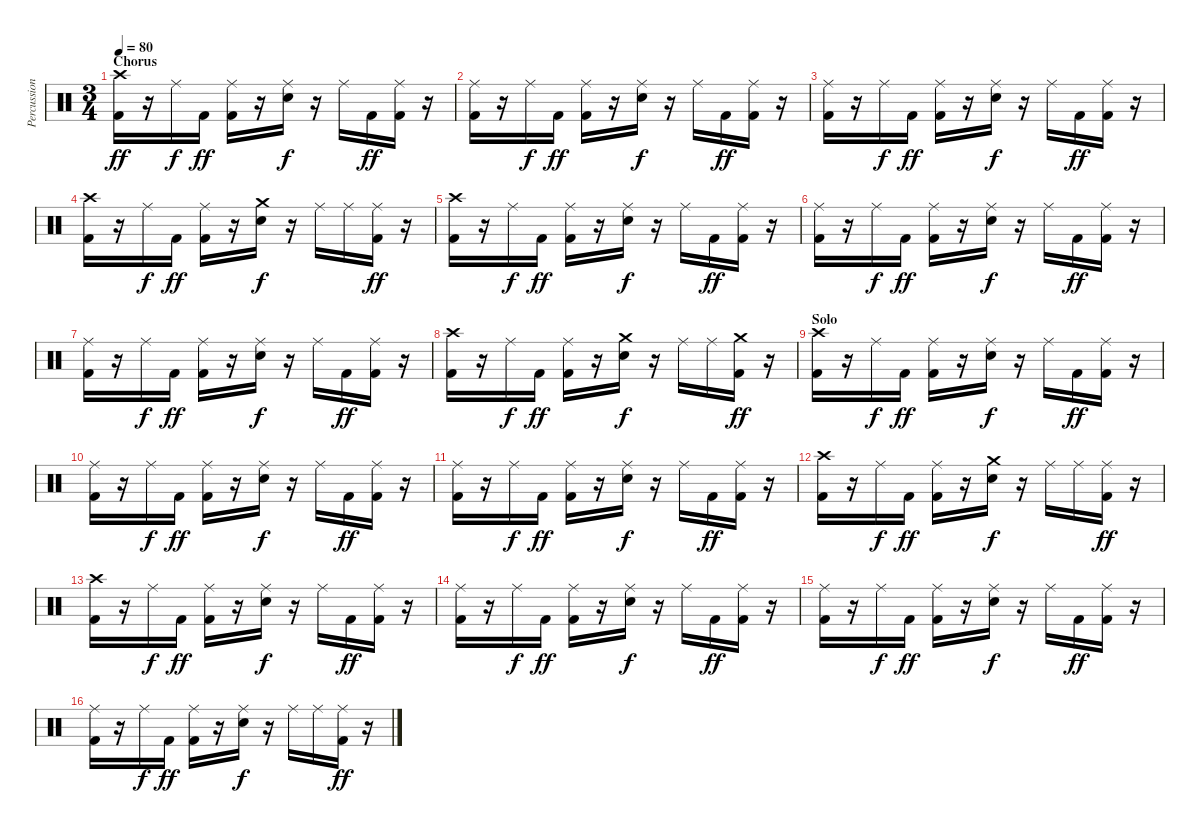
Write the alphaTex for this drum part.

\track ("Percussion" "Percussion") {instrument percussion}
\staff {score}
\articulation defaults
\ts (3 4)
\section ("" "Chorus")
\tempo 80
\clef neutral
\ks c
("Crash high (hit)" "Kick (hit) 2").16{dy ff} r.16 "Ride (middle)".16{dy f} "Kick (hit) 2".16{dy ff} ("Ride (middle)" "Kick (hit) 2").16 r.16 ("Ride (middle)" "Electric Snare (hit)").16{dy f} r.16 "Ride (middle)".16 "Kick (hit) 2".16{dy ff} ("Ride (middle)" "Kick (hit) 2").16 r.16 |
("Ride (middle)" "Kick (hit) 2").16 r.16 "Ride (middle)".16{dy f} "Kick (hit) 2".16{dy ff} ("Ride (middle)" "Kick (hit) 2").16 r.16 ("Ride (middle)" "Electric Snare (hit)").16{dy f} r.16 "Ride (middle)".16 "Kick (hit) 2".16{dy ff} ("Ride (middle)" "Kick (hit) 2").16 r.16 |
("Ride (middle)" "Kick (hit) 2").16 r.16 "Ride (middle)".16{dy f} "Kick (hit) 2".16{dy ff} ("Ride (middle)" "Kick (hit) 2").16 r.16 ("Ride (middle)" "Electric Snare (hit)").16{dy f} r.16 "Ride (middle)".16 "Kick (hit) 2".16{dy ff} ("Ride (middle)" "Kick (hit) 2").16 r.16 |
("Crash high (hit)" "Kick (hit) 2").16 r.16 "Ride (middle)".16{dy f} "Kick (hit) 2".16{dy ff} ("Ride (middle)" "Kick (hit) 2").16 r.16 ("Crash medium (hit)" "Electric Snare (hit)").16{dy f} r.16 "Ride (middle)".16 "Ride (middle)".16 ("Ride (middle)" "Kick (hit) 2").16{dy ff} r.16 |
("Crash high (hit)" "Kick (hit) 2").16 r.16 "Ride (middle)".16{dy f} "Kick (hit) 2".16{dy ff} ("Ride (middle)" "Kick (hit) 2").16 r.16 ("Ride (middle)" "Electric Snare (hit)").16{dy f} r.16 "Ride (middle)".16 "Kick (hit) 2".16{dy ff} ("Ride (middle)" "Kick (hit) 2").16 r.16 |
("Ride (middle)" "Kick (hit) 2").16 r.16 "Ride (middle)".16{dy f} "Kick (hit) 2".16{dy ff} ("Ride (middle)" "Kick (hit) 2").16 r.16 ("Ride (middle)" "Electric Snare (hit)").16{dy f} r.16 "Ride (middle)".16 "Kick (hit) 2".16{dy ff} ("Ride (middle)" "Kick (hit) 2").16 r.16 |
("Ride (middle)" "Kick (hit) 2").16 r.16 "Ride (middle)".16{dy f} "Kick (hit) 2".16{dy ff} ("Ride (middle)" "Kick (hit) 2").16 r.16 ("Ride (middle)" "Electric Snare (hit)").16{dy f} r.16 "Ride (middle)".16 "Kick (hit) 2".16{dy ff} ("Ride (middle)" "Kick (hit) 2").16 r.16 |
("Crash high (hit)" "Kick (hit) 2").16 r.16 "Ride (middle)".16{dy f} "Kick (hit) 2".16{dy ff} ("Ride (middle)" "Kick (hit) 2").16 r.16 ("Crash medium (hit)" "Electric Snare (hit)").16{dy f} r.16 "Ride (middle)".16 "Ride (middle)".16 ("Crash medium (hit)" "Kick (hit) 2").16{dy ff} r.16 |
\section ("" "Solo")
("Crash high (hit)" "Kick (hit) 2").16 r.16 "Ride (middle)".16{dy f} "Kick (hit) 2".16{dy ff} ("Ride (middle)" "Kick (hit) 2").16 r.16 ("Ride (middle)" "Electric Snare (hit)").16{dy f} r.16 "Ride (middle)".16 "Kick (hit) 2".16{dy ff} ("Ride (middle)" "Kick (hit) 2").16 r.16 |
("Ride (middle)" "Kick (hit) 2").16 r.16 "Ride (middle)".16{dy f} "Kick (hit) 2".16{dy ff} ("Ride (middle)" "Kick (hit) 2").16 r.16 ("Ride (middle)" "Electric Snare (hit)").16{dy f} r.16 "Ride (middle)".16 "Kick (hit) 2".16{dy ff} ("Ride (middle)" "Kick (hit) 2").16 r.16 |
("Ride (middle)" "Kick (hit) 2").16 r.16 "Ride (middle)".16{dy f} "Kick (hit) 2".16{dy ff} ("Ride (middle)" "Kick (hit) 2").16 r.16 ("Ride (middle)" "Electric Snare (hit)").16{dy f} r.16 "Ride (middle)".16 "Kick (hit) 2".16{dy ff} ("Ride (middle)" "Kick (hit) 2").16 r.16 |
("Crash high (hit)" "Kick (hit) 2").16 r.16 "Ride (middle)".16{dy f} "Kick (hit) 2".16{dy ff} ("Ride (middle)" "Kick (hit) 2").16 r.16 ("Crash medium (hit)" "Electric Snare (hit)").16{dy f} r.16 "Ride (middle)".16 "Ride (middle)".16 ("Ride (middle)" "Kick (hit) 2").16{dy ff} r.16 |
("Crash high (hit)" "Kick (hit) 2").16 r.16 "Ride (middle)".16{dy f} "Kick (hit) 2".16{dy ff} ("Ride (middle)" "Kick (hit) 2").16 r.16 ("Ride (middle)" "Electric Snare (hit)").16{dy f} r.16 "Ride (middle)".16 "Kick (hit) 2".16{dy ff} ("Ride (middle)" "Kick (hit) 2").16 r.16 |
("Ride (middle)" "Kick (hit) 2").16 r.16 "Ride (middle)".16{dy f} "Kick (hit) 2".16{dy ff} ("Ride (middle)" "Kick (hit) 2").16 r.16 ("Ride (middle)" "Electric Snare (hit)").16{dy f} r.16 "Ride (middle)".16 "Kick (hit) 2".16{dy ff} ("Ride (middle)" "Kick (hit) 2").16 r.16 |
("Ride (middle)" "Kick (hit) 2").16 r.16 "Ride (middle)".16{dy f} "Kick (hit) 2".16{dy ff} ("Ride (middle)" "Kick (hit) 2").16 r.16 ("Ride (middle)" "Electric Snare (hit)").16{dy f} r.16 "Ride (middle)".16 "Kick (hit) 2".16{dy ff} ("Ride (middle)" "Kick (hit) 2").16 r.16 |
("Ride (middle)" "Kick (hit) 2").16 r.16 "Ride (middle)".16{dy f} "Kick (hit) 2".16{dy ff} ("Ride (middle)" "Kick (hit) 2").16 r.16 ("Ride (middle)" "Electric Snare (hit)").16{dy f} r.16 "Ride (middle)".16 "Ride (middle)".16 ("Ride (middle)" "Kick (hit) 2").16{dy ff} r.16
